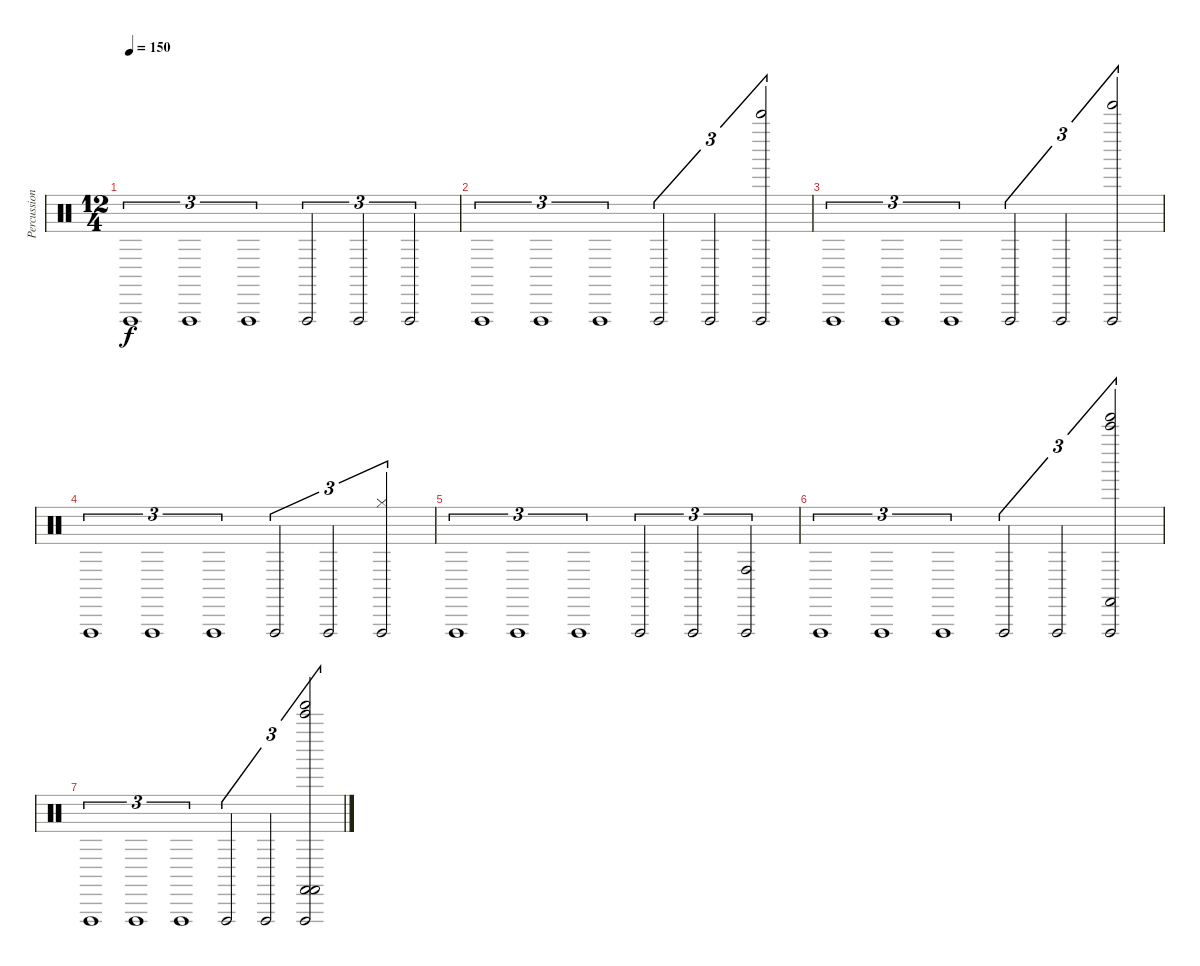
\track ("Percussions" "Percussion") {instrument percussion}
\staff {score}
\articulation defaults
\ts (12 4)
\tempo 150
\clef neutral
\ks c "Vibraslap (hit)".1{tu (3 2) dy f} "Vibraslap (hit)".1{tu (3 2)} "Vibraslap (hit)".1{tu (3 2)} "Vibraslap (hit)".2{tu (3 2)} "Vibraslap (hit)".2{tu (3 2)} "Vibraslap (hit)".2{tu (3 2)}
|
"Vibraslap (hit)".1{tu (3 2)} "Vibraslap (hit)".1{tu (3 2)} "Vibraslap (hit)".1{tu (3 2)} "Vibraslap (hit)".2{tu (3 2)} "Vibraslap (hit)".2{tu (3 2)} ("Vibraslap (hit)" "Bell Tree (hit)").2{tu (3 2)} |
"Vibraslap (hit)".1{tu (3 2)} "Vibraslap (hit)".1{tu (3 2)} "Vibraslap (hit)".1{tu (3 2)} "Vibraslap (hit)".2{tu (3 2)} "Vibraslap (hit)".2{tu (3 2)} ("Vibraslap (hit)" "Tinkle Bell (hit)").2{tu (3 2)} |
"Vibraslap (hit)".1{tu (3 2)} "Vibraslap (hit)".1{tu (3 2)} "Vibraslap (hit)".1{tu (3 2)} "Vibraslap (hit)".2{tu (3 2)} "Vibraslap (hit)".2{tu (3 2)} ("Vibraslap (hit)" "Hi-Hat (closed)").2{tu (3 2)} |
"Vibraslap (hit)".1{tu (3 2)} "Vibraslap (hit)".1{tu (3 2)} "Vibraslap (hit)".1{tu (3 2)} "Vibraslap (hit)".2{tu (3 2)} "Vibraslap (hit)".2{tu (3 2)} ("Vibraslap (hit)" "Conga high (hit)").2{tu (3 2)} |
"Vibraslap (hit)".1{tu (3 2)} "Vibraslap (hit)".1{tu (3 2)} "Vibraslap (hit)".1{tu (3 2)} "Vibraslap (hit)".2{tu (3 2)} "Vibraslap (hit)".2{tu (3 2)} ("Vibraslap (hit)" "Castanets (hit)" "Bell Tree (hit)" "Tinkle Bell (hit)").2{tu (3 2)} |
"Vibraslap (hit)".1{tu (3 2)} "Vibraslap (hit)".1{tu (3 2)} "Vibraslap (hit)".1{tu (3 2)} "Vibraslap (hit)".2{tu (3 2)} "Vibraslap (hit)".2{tu (3 2)} ("Vibraslap (hit)" "Castanets (hit)" "Bell Tree (hit)" "Tinkle Bell (hit)" "Castanets (hit)").2{tu (3 2)}
